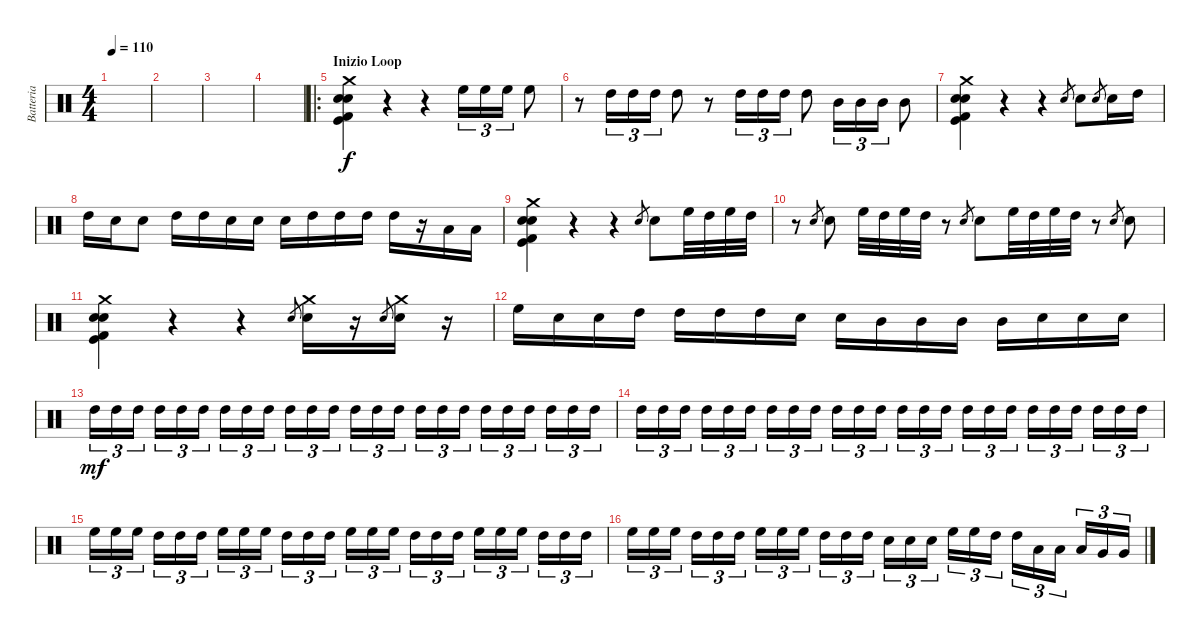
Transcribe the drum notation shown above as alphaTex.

\track ("Batteria" "Batteria") {instrument percussion}
\staff {score}
\articulation defaults
\ts (4 4)
\tempo 110
\clef neutral
\ks c
|
|
|
|
\ro
\section ("" "Inizio Loop")
("Crash medium (hit)" "Snare (hit) 2" "Electric Snare (hit)" "Kick (hit)" "Kick (hit) 2").4 r.4 r.4 "High Floor Tom (hit)".16{tu (3 2)} "High Floor Tom (hit)".16{tu (3 2)} "High Floor Tom (hit)".16{tu (3 2)} "High Floor Tom (hit)".8 |
r.8 "High Tom (hit)".16{tu (3 2)} "High Tom (hit)".16{tu (3 2)} "High Tom (hit)".16{tu (3 2)} "High Tom (hit)".8 r.8 "High Tom (hit)".16{tu (3 2)} "High Tom (hit)".16{tu (3 2)} "High Tom (hit)".16{tu (3 2)} "High Tom (hit)".8 "Mid Tom (hit)".16{tu (3 2)} "Mid Tom (hit)".16{tu (3 2)} "Mid Tom (hit)".16{tu (3 2)} "Mid Tom (hit)".8 |
("Crash medium (hit)" "Snare (hit) 2" "Electric Snare (hit)" "Kick (hit)" "Kick (hit) 2").4 r.4 r.4 "Electric Snare (hit)".8{gr} "Electric Snare (hit)".8 "Electric Snare (hit)".8{gr} "Electric Snare (hit)".16 "High Tom (hit)".16 |
"High Tom (hit)".16 "Electric Snare (hit)".16 "Electric Snare (hit)".8 "High Tom (hit)".16 "High Tom (hit)".16 "Electric Snare (hit)".16 "Electric Snare (hit)".16 "Electric Snare (hit)".16 "High Tom (hit)".16 "High Tom (hit)".16 "High Tom (hit)".16 "High Tom (hit)".16 r.16 "Low Tom (hit)".16 "Low Tom (hit)".16 |
("Crash medium (hit)" "Snare (hit) 2" "Electric Snare (hit)" "Kick (hit)" "Kick (hit) 2").4 r.4 r.4 "Electric Snare (hit)".8{gr} "Electric Snare (hit)".8 "High Floor Tom (hit)".32 "High Tom (hit)".32 "High Floor Tom (hit)".32 "High Tom (hit)".32 |
r.8 "Electric Snare (hit)".8{gr} "Electric Snare (hit)".8 "High Floor Tom (hit)".32 "High Tom (hit)".32 "High Floor Tom (hit)".32 "High Tom (hit)".32 r.8 "Electric Snare (hit)".8{gr} "Electric Snare (hit)".8 "High Floor Tom (hit)".32 "High Tom (hit)".32 "High Floor Tom (hit)".32 "High Tom (hit)".32 r.8 "Electric Snare (hit)".8{gr} "Electric Snare (hit)".8 |
("Crash medium (hit)" "Snare (hit) 2" "Electric Snare (hit)" "Kick (hit)" "Kick (hit) 2").4 r.4 r.4 "Electric Snare (hit)".8{gr} ("Crash medium (hit)" "Electric Snare (hit)").16 r.16 "Electric Snare (hit)".8{gr} ("Crash medium (hit)" "Electric Snare (hit)").16 r.16 |
"High Floor Tom (hit)".16 "Electric Snare (hit)".16 "Electric Snare (hit)".16 "High Tom (hit)".16 "High Tom (hit)".16 "High Tom (hit)".16 "High Tom (hit)".16 "Electric Snare (hit)".16 "Electric Snare (hit)".16 "Mid Tom (hit)".16 "Mid Tom (hit)".16 "Mid Tom (hit)".16 "Mid Tom (hit)".16 "Electric Snare (hit)".16 "Electric Snare (hit)".16 "Electric Snare (hit)".16 |
"High Tom (hit)".16{tu (3 2) dy mf} "High Tom (hit)".16{tu (3 2)} "High Tom (hit)".16{tu (3 2)} "High Tom (hit)".16{tu (3 2)} "High Tom (hit)".16{tu (3 2)} "High Tom (hit)".16{tu (3 2)} "High Tom (hit)".16{tu (3 2)} "High Tom (hit)".16{tu (3 2)} "High Tom (hit)".16{tu (3 2)} "High Tom (hit)".16{tu (3 2)} "High Tom (hit)".16{tu (3 2)} "High Tom (hit)".16{tu (3 2)} "High Tom (hit)".16{tu (3 2)} "High Tom (hit)".16{tu (3 2)} "High Tom (hit)".16{tu (3 2)} "High Tom (hit)".16{tu (3 2)} "High Tom (hit)".16{tu (3 2)} "High Tom (hit)".16{tu (3 2)} "High Tom (hit)".16{tu (3 2)} "High Tom (hit)".16{tu (3 2)} "High Tom (hit)".16{tu (3 2)} "High Tom (hit)".16{tu (3 2)} "High Tom (hit)".16{tu (3 2)} "High Tom (hit)".16{tu (3 2)} |
"High Tom (hit)".16{tu (3 2)} "High Tom (hit)".16{tu (3 2)} "High Tom (hit)".16{tu (3 2)} "High Tom (hit)".16{tu (3 2)} "High Tom (hit)".16{tu (3 2)} "High Tom (hit)".16{tu (3 2)} "High Tom (hit)".16{tu (3 2)} "High Tom (hit)".16{tu (3 2)} "High Tom (hit)".16{tu (3 2)} "High Tom (hit)".16{tu (3 2)} "High Tom (hit)".16{tu (3 2)} "High Tom (hit)".16{tu (3 2)} "High Tom (hit)".16{tu (3 2)} "High Tom (hit)".16{tu (3 2)} "High Tom (hit)".16{tu (3 2)} "High Tom (hit)".16{tu (3 2)} "High Tom (hit)".16{tu (3 2)} "High Tom (hit)".16{tu (3 2)} "High Tom (hit)".16{tu (3 2)} "High Tom (hit)".16{tu (3 2)} "High Tom (hit)".16{tu (3 2)} "High Tom (hit)".16{tu (3 2)} "High Tom (hit)".16{tu (3 2)} "High Tom (hit)".16{tu (3 2)} |
"High Floor Tom (hit)".16{tu (3 2)} "High Floor Tom (hit)".16{tu (3 2)} "High Floor Tom (hit)".16{tu (3 2)} "High Tom (hit)".16{tu (3 2)} "High Tom (hit)".16{tu (3 2)} "High Tom (hit)".16{tu (3 2)} "High Floor Tom (hit)".16{tu (3 2)} "High Floor Tom (hit)".16{tu (3 2)} "High Floor Tom (hit)".16{tu (3 2)} "High Tom (hit)".16{tu (3 2)} "High Tom (hit)".16{tu (3 2)} "High Tom (hit)".16{tu (3 2)} "High Floor Tom (hit)".16{tu (3 2)} "High Floor Tom (hit)".16{tu (3 2)} "High Floor Tom (hit)".16{tu (3 2)} "High Tom (hit)".16{tu (3 2)} "High Tom (hit)".16{tu (3 2)} "High Tom (hit)".16{tu (3 2)} "High Floor Tom (hit)".16{tu (3 2)} "High Floor Tom (hit)".16{tu (3 2)} "High Floor Tom (hit)".16{tu (3 2)} "High Tom (hit)".16{tu (3 2)} "High Tom (hit)".16{tu (3 2)} "High Tom (hit)".16{tu (3 2)} |
"High Floor Tom (hit)".16{tu (3 2)} "High Floor Tom (hit)".16{tu (3 2)} "High Floor Tom (hit)".16{tu (3 2)} "High Tom (hit)".16{tu (3 2)} "High Tom (hit)".16{tu (3 2)} "High Tom (hit)".16{tu (3 2)} "High Floor Tom (hit)".16{tu (3 2)} "High Floor Tom (hit)".16{tu (3 2)} "High Floor Tom (hit)".16{tu (3 2)} "High Tom (hit)".16{tu (3 2)} "High Tom (hit)".16{tu (3 2)} "High Tom (hit)".16{tu (3 2)} "Electric Snare (hit)".16{tu (3 2)} "Electric Snare (hit)".16{tu (3 2)} "Electric Snare (hit)".16{tu (3 2)} "High Floor Tom (hit)".16{tu (3 2)} "High Floor Tom (hit)".16{tu (3 2)} "High Tom (hit)".16{tu (3 2)} "High Tom (hit)".16{tu (3 2)} "Low Tom (hit)".16{tu (3 2)} "Low Tom (hit)".16{tu (3 2)} "Low Tom (hit)".16{tu (3 2)} "Very Low Tom (hit)".16{tu (3 2)} "Very Low Tom (hit)".16{tu (3 2)}
